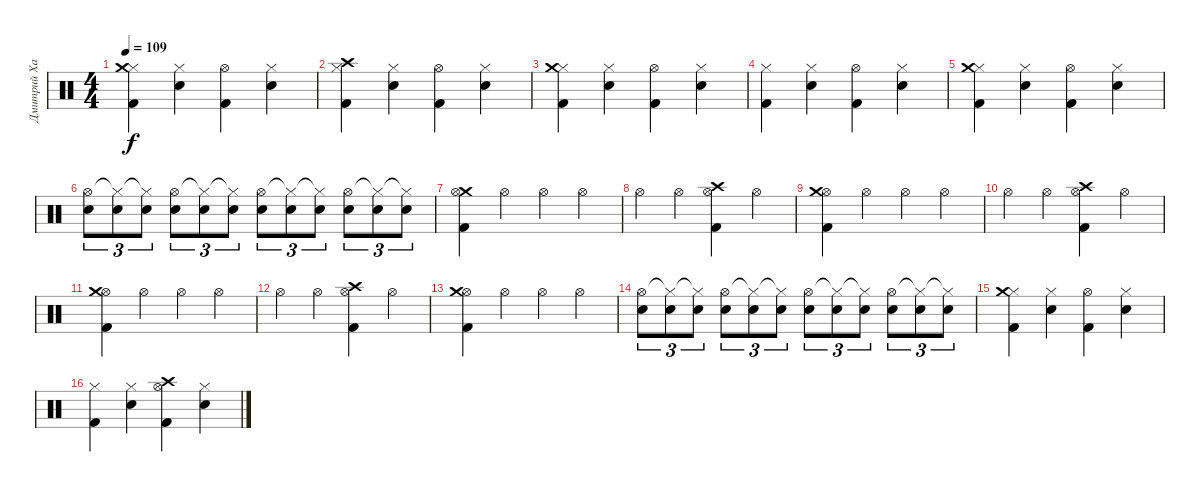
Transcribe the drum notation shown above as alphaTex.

\track ("Дмитрий Хакимов" "Дмитрий Ха") {instrument percussion}
\staff {score}
\articulation defaults
\ts (4 4)
\tempo 109
\clef neutral
\ks c
("Hi-Hat (closed)" "Crash medium (hit)" "Kick (hit) 2").4{dy f} ("Hi-Hat (closed)" "Snare (hit) 2").4 ("Hi-Hat (open)" "Kick (hit) 2").4 ("Hi-Hat (closed)" "Snare (hit) 2").4 |
("Hi-Hat (closed)" "Kick (hit) 2" "Crash high (hit)").4 ("Hi-Hat (closed)" "Snare (hit) 2").4 ("Hi-Hat (open)" "Kick (hit) 2").4 ("Hi-Hat (closed)" "Snare (hit) 2").4 |
("Hi-Hat (closed)" "Crash medium (hit)" "Kick (hit) 2").4 ("Hi-Hat (closed)" "Snare (hit) 2").4 ("Hi-Hat (open)" "Kick (hit) 2").4 ("Hi-Hat (closed)" "Snare (hit) 2").4 |
("Hi-Hat (closed)" "Kick (hit) 2").4 ("Hi-Hat (closed)" "Snare (hit) 2").4 ("Hi-Hat (open)" "Kick (hit) 2").4 ("Hi-Hat (closed)" "Snare (hit) 2").4 |
("Hi-Hat (closed)" "Crash medium (hit)" "Kick (hit) 2").4 ("Hi-Hat (closed)" "Snare (hit) 2").4 ("Hi-Hat (open)" "Kick (hit) 2").4 ("Hi-Hat (closed)" "Snare (hit) 2").4 |
("Snare (hit) 2" "Hi-Hat (open)").8{tu (3 2)} ("Snare (hit) 2" "Hi-Hat (closed)"{t}).8{tu (3 2)} ("Snare (hit) 2" "Hi-Hat (closed)"{t}).8{tu (3 2)} ("Snare (hit) 2" "Hi-Hat (open)").8{tu (3 2)} ("Snare (hit) 2" "Hi-Hat (closed)"{t}).8{tu (3 2)} ("Snare (hit) 2" "Hi-Hat (closed)"{t}).8{tu (3 2)} ("Snare (hit) 2" "Hi-Hat (open)").8{tu (3 2)} ("Snare (hit) 2" "Hi-Hat (closed)"{t}).8{tu (3 2)} ("Snare (hit) 2" "Hi-Hat (closed)"{t}).8{tu (3 2)} ("Snare (hit) 2" "Hi-Hat (open)").8{tu (3 2)} ("Snare (hit) 2" "Hi-Hat (closed)"{t}).8{tu (3 2)} ("Snare (hit) 2" "Hi-Hat (closed)"{t}).8{tu (3 2)} |
("Crash medium (hit)" "Hi-Hat (open)" "Kick (hit) 2").4 "Hi-Hat (open)".4 "Hi-Hat (open)".4 "Hi-Hat (open)".4 |
"Hi-Hat (open)".4 "Hi-Hat (open)".4 ("Kick (hit) 2" "Crash high (hit)" "Hi-Hat (open)").4 "Hi-Hat (open)".4 |
("Hi-Hat (open)" "Crash medium (hit)" "Kick (hit) 2").4 "Hi-Hat (open)".4 "Hi-Hat (open)".4 "Hi-Hat (open)".4 |
"Hi-Hat (open)".4 "Hi-Hat (open)".4 ("Hi-Hat (open)" "Crash high (hit)" "Kick (hit) 2").4 "Hi-Hat (open)".4 |
("Hi-Hat (open)" "Crash medium (hit)" "Kick (hit) 2").4 "Hi-Hat (open)".4 "Hi-Hat (open)".4 "Hi-Hat (open)".4 |
"Hi-Hat (open)".4 "Hi-Hat (open)".4 ("Hi-Hat (open)" "Crash high (hit)" "Kick (hit) 2").4 "Hi-Hat (open)".4 |
("Hi-Hat (open)" "Crash medium (hit)" "Kick (hit) 2").4 "Hi-Hat (open)".4 "Hi-Hat (open)".4 "Hi-Hat (open)".4 |
("Snare (hit) 2" "Hi-Hat (open)").8{tu (3 2)} ("Snare (hit) 2" "Hi-Hat (closed)"{t}).8{tu (3 2)} ("Snare (hit) 2" "Hi-Hat (closed)"{t}).8{tu (3 2)} ("Snare (hit) 2" "Hi-Hat (open)").8{tu (3 2)} ("Snare (hit) 2" "Hi-Hat (closed)"{t}).8{tu (3 2)} ("Snare (hit) 2" "Hi-Hat (closed)"{t}).8{tu (3 2)} ("Snare (hit) 2" "Hi-Hat (open)").8{tu (3 2)} ("Snare (hit) 2" "Hi-Hat (closed)"{t}).8{tu (3 2)} ("Snare (hit) 2" "Hi-Hat (closed)"{t}).8{tu (3 2)} ("Snare (hit) 2" "Hi-Hat (open)").8{tu (3 2)} ("Snare (hit) 2" "Hi-Hat (closed)"{t}).8{tu (3 2)} ("Snare (hit) 2" "Hi-Hat (closed)"{t}).8{tu (3 2)} |
("Hi-Hat (closed)" "Kick (hit) 2" "Crash medium (hit)").4 ("Hi-Hat (closed)" "Snare (hit) 2").4 ("Hi-Hat (open)" "Kick (hit) 2").4 ("Hi-Hat (closed)" "Snare (hit) 2").4 |
("Hi-Hat (closed)" "Kick (hit) 2").4 ("Hi-Hat (closed)" "Snare (hit) 2").4 ("Hi-Hat (open)" "Crash high (hit)" "Kick (hit) 2").4 ("Hi-Hat (closed)" "Snare (hit) 2").4
